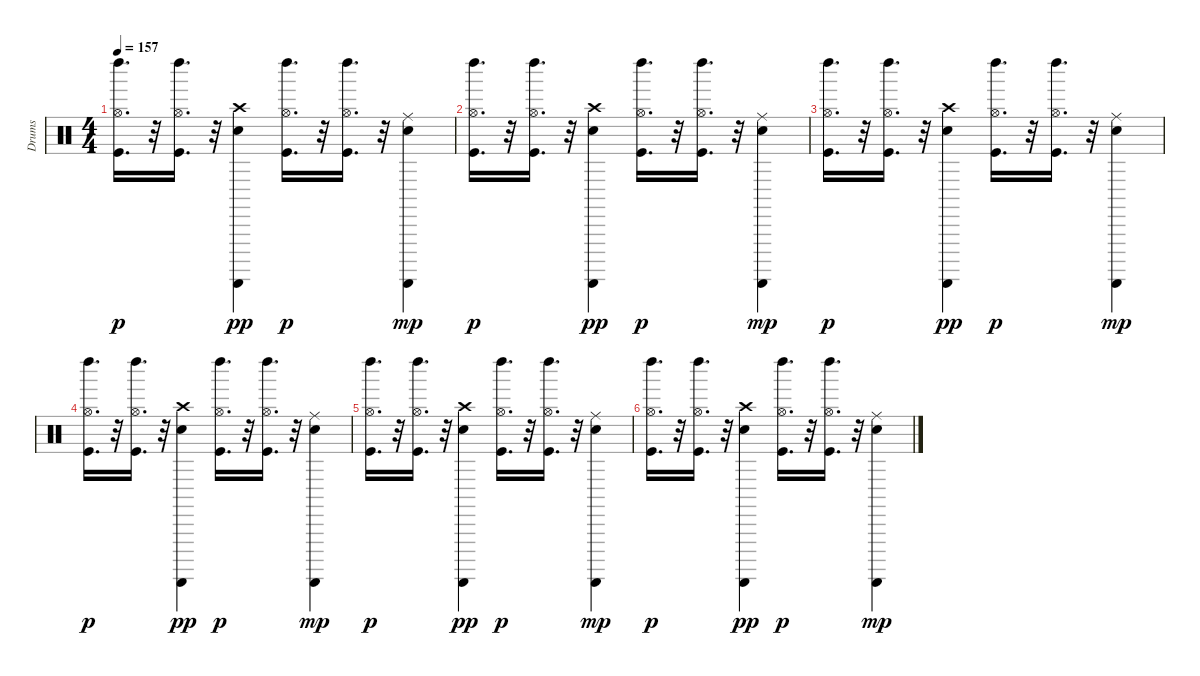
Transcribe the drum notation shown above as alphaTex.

\track ("Drums               " "Drums     ") {instrument percussion}
\staff {score}
\articulation defaults
\ts (4 4)
\tempo 157
\clef neutral
\ks c
("Left Maraca (hit)" "Kick (hit)" "Hi-Hat (open)").16{d dy p volume 10} r.32 ("Left Maraca (hit)" "Kick (hit)" "Hi-Hat (open)").16{d volume 10} r.32 ("Hand Clap (hit)" "Guiro (scrap-return)" "Crash high (hit)").4{dy pp volume 10} ("Left Maraca (hit)" "Kick (hit)" "Hi-Hat (open)").16{d dy p volume 9} r.32 ("Left Maraca (hit)" "Kick (hit)" "Hi-Hat (open)").16{d volume 9} r.32 ("Hand Clap (hit)" "Guiro (scrap-return)" "Ride (middle)").4{dy mp volume 9} |
("Left Maraca (hit)" "Kick (hit)" "Hi-Hat (open)").16{d dy p volume 8} r.32 ("Left Maraca (hit)" "Kick (hit)" "Hi-Hat (open)").16{d volume 8} r.32 ("Hand Clap (hit)" "Guiro (scrap-return)" "Crash high (hit)").4{dy pp volume 8} ("Left Maraca (hit)" "Kick (hit)" "Hi-Hat (open)").16{d dy p volume 7} r.32 ("Left Maraca (hit)" "Kick (hit)" "Hi-Hat (open)").16{d volume 7} r.32 ("Hand Clap (hit)" "Guiro (scrap-return)" "Ride (middle)").4{dy mp volume 7} |
("Left Maraca (hit)" "Kick (hit)" "Hi-Hat (open)").16{d dy p volume 6} r.32 ("Left Maraca (hit)" "Kick (hit)" "Hi-Hat (open)").16{d volume 6} r.32 ("Hand Clap (hit)" "Guiro (scrap-return)" "Crash high (hit)").4{dy pp volume 6} ("Left Maraca (hit)" "Kick (hit)" "Hi-Hat (open)").16{d dy p volume 5} r.32 ("Left Maraca (hit)" "Kick (hit)" "Hi-Hat (open)").16{d volume 5} r.32 ("Hand Clap (hit)" "Guiro (scrap-return)" "Ride (middle)").4{dy mp volume 5} |
("Left Maraca (hit)" "Kick (hit)" "Hi-Hat (open)").16{d dy p volume 4} r.32 ("Left Maraca (hit)" "Kick (hit)" "Hi-Hat (open)").16{d volume 4} r.32 ("Hand Clap (hit)" "Guiro (scrap-return)" "Crash high (hit)").4{dy pp volume 4} ("Left Maraca (hit)" "Kick (hit)" "Hi-Hat (open)").16{d dy p volume 3} r.32 ("Left Maraca (hit)" "Kick (hit)" "Hi-Hat (open)").16{d volume 3} r.32 ("Hand Clap (hit)" "Guiro (scrap-return)" "Ride (middle)").4{dy mp volume 3} |
("Left Maraca (hit)" "Kick (hit)" "Hi-Hat (open)").16{d dy p volume 2} r.32 ("Left Maraca (hit)" "Kick (hit)" "Hi-Hat (open)").16{d volume 2} r.32 ("Hand Clap (hit)" "Guiro (scrap-return)" "Crash high (hit)").4{dy pp volume 2} ("Left Maraca (hit)" "Kick (hit)" "Hi-Hat (open)").16{d dy p volume 1} r.32 ("Left Maraca (hit)" "Kick (hit)" "Hi-Hat (open)").16{d volume 1} r.32 ("Hand Clap (hit)" "Guiro (scrap-return)" "Ride (middle)").4{dy mp volume 1} |
("Left Maraca (hit)" "Kick (hit)" "Hi-Hat (open)").16{d dy p volume 0} r.32 ("Left Maraca (hit)" "Kick (hit)" "Hi-Hat (open)").16{d volume 0} r.32 ("Hand Clap (hit)" "Guiro (scrap-return)" "Crash high (hit)").4{dy pp volume 0} ("Left Maraca (hit)" "Kick (hit)" "Hi-Hat (open)").16{d dy p} r.32 ("Left Maraca (hit)" "Kick (hit)" "Hi-Hat (open)").16{d} r.32 ("Hand Clap (hit)" "Guiro (scrap-return)" "Ride (middle)").4{dy mp}
